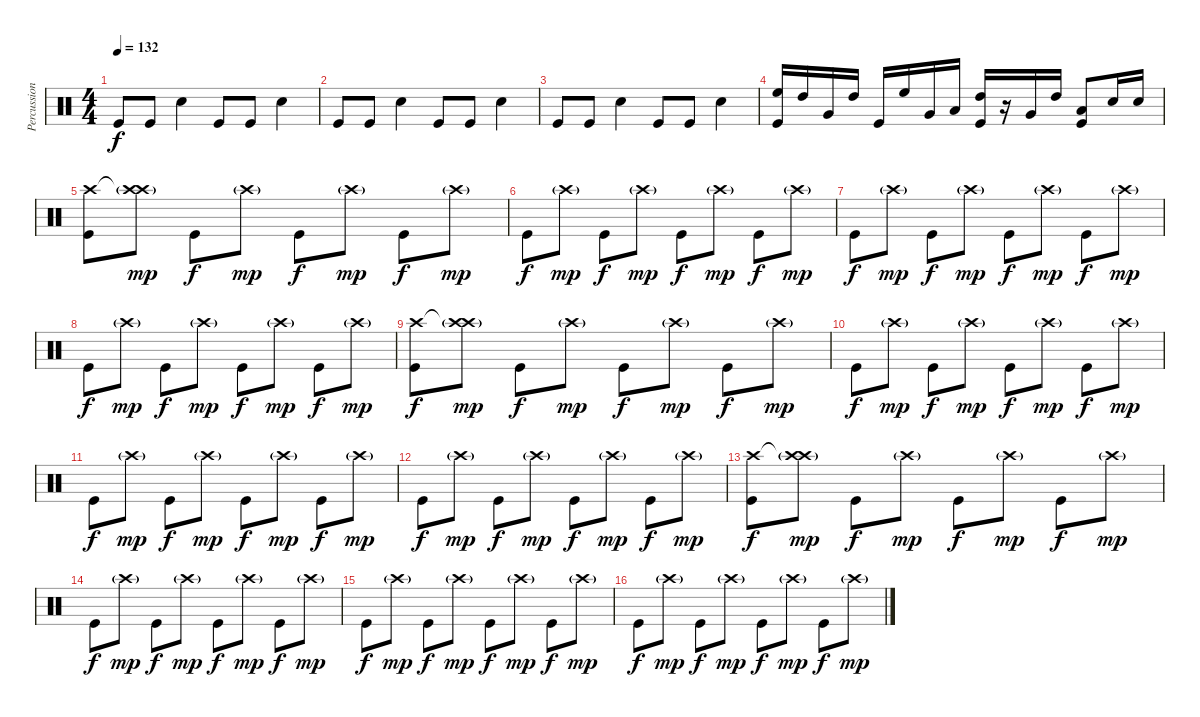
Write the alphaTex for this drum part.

\track ("Percussion" "Percussion") {instrument percussion}
\staff {score}
\articulation defaults
\ts (4 4)
\tempo 132
\clef neutral
\ks c "Kick (hit)".8{dy f} "Kick (hit)".8 "Snare (hit) 2".4 "Kick (hit)".8 "Kick (hit)".8 "Snare (hit) 2".4
|
"Kick (hit)".8 "Kick (hit)".8 "Snare (hit) 2".4 "Kick (hit)".8 "Kick (hit)".8 "Snare (hit) 2".4 |
"Kick (hit)".8 "Kick (hit)".8 "Snare (hit) 2".4 "Kick (hit)".8 "Kick (hit)".8 "Snare (hit) 2".4 |
("High Floor Tom (hit)" "Kick (hit)").16 "High Tom (hit)".16 "Very Low Tom (hit)".16 "High Tom (hit)".16 "Kick (hit)".16 "High Floor Tom (hit)".16 "Very Low Tom (hit)".16 "Low Floor Tom (hit)".16 ("High Tom (hit)" "Kick (hit)").16 r.16 "Very Low Tom (hit)".16 "High Tom (hit)".16 ("Low Floor Tom (hit)" "Kick (hit)").8 "Electric Snare (hit)".16 "Electric Snare (hit)".16 |
("Crash high (hit)" "Kick (hit)").8 ("Crash high (hit)"{t} "Crash high (hit)"{g}).8{dy mp} "Kick (hit)".8{dy f} "Crash high (hit)"{g}.8{dy mp} "Kick (hit)".8{dy f} "Crash high (hit)"{g}.8{dy mp} "Kick (hit)".8{dy f} "Crash high (hit)"{g}.8{dy mp} |
"Kick (hit)".8{dy f} "Crash high (hit)"{g}.8{dy mp} "Kick (hit)".8{dy f} "Crash high (hit)"{g}.8{dy mp} "Kick (hit)".8{dy f} "Crash high (hit)"{g}.8{dy mp} "Kick (hit)".8{dy f} "Crash high (hit)"{g}.8{dy mp} |
"Kick (hit)".8{dy f} "Crash high (hit)"{g}.8{dy mp} "Kick (hit)".8{dy f} "Crash high (hit)"{g}.8{dy mp} "Kick (hit)".8{dy f} "Crash high (hit)"{g}.8{dy mp} "Kick (hit)".8{dy f} "Crash high (hit)"{g}.8{dy mp} |
"Kick (hit)".8{dy f} "Crash high (hit)"{g}.8{dy mp} "Kick (hit)".8{dy f} "Crash high (hit)"{g}.8{dy mp} "Kick (hit)".8{dy f} "Crash high (hit)"{g}.8{dy mp} "Kick (hit)".8{dy f} "Crash high (hit)"{g}.8{dy mp} |
("Crash high (hit)" "Kick (hit)").8{dy f} ("Crash high (hit)"{t} "Crash high (hit)"{g}).8{dy mp} "Kick (hit)".8{dy f} "Crash high (hit)"{g}.8{dy mp} "Kick (hit)".8{dy f} "Crash high (hit)"{g}.8{dy mp} "Kick (hit)".8{dy f} "Crash high (hit)"{g}.8{dy mp} |
"Kick (hit)".8{dy f} "Crash high (hit)"{g}.8{dy mp} "Kick (hit)".8{dy f} "Crash high (hit)"{g}.8{dy mp} "Kick (hit)".8{dy f} "Crash high (hit)"{g}.8{dy mp} "Kick (hit)".8{dy f} "Crash high (hit)"{g}.8{dy mp} |
"Kick (hit)".8{dy f} "Crash high (hit)"{g}.8{dy mp} "Kick (hit)".8{dy f} "Crash high (hit)"{g}.8{dy mp} "Kick (hit)".8{dy f} "Crash high (hit)"{g}.8{dy mp} "Kick (hit)".8{dy f} "Crash high (hit)"{g}.8{dy mp} |
"Kick (hit)".8{dy f} "Crash high (hit)"{g}.8{dy mp} "Kick (hit)".8{dy f} "Crash high (hit)"{g}.8{dy mp} "Kick (hit)".8{dy f} "Crash high (hit)"{g}.8{dy mp} "Kick (hit)".8{dy f} "Crash high (hit)"{g}.8{dy mp} |
("Crash high (hit)" "Kick (hit)").8{dy f} ("Crash high (hit)"{t} "Crash high (hit)"{g}).8{dy mp} "Kick (hit)".8{dy f} "Crash high (hit)"{g}.8{dy mp} "Kick (hit)".8{dy f} "Crash high (hit)"{g}.8{dy mp} "Kick (hit)".8{dy f} "Crash high (hit)"{g}.8{dy mp} |
"Kick (hit)".8{dy f} "Crash high (hit)"{g}.8{dy mp} "Kick (hit)".8{dy f} "Crash high (hit)"{g}.8{dy mp} "Kick (hit)".8{dy f} "Crash high (hit)"{g}.8{dy mp} "Kick (hit)".8{dy f} "Crash high (hit)"{g}.8{dy mp} |
"Kick (hit)".8{dy f} "Crash high (hit)"{g}.8{dy mp} "Kick (hit)".8{dy f} "Crash high (hit)"{g}.8{dy mp} "Kick (hit)".8{dy f} "Crash high (hit)"{g}.8{dy mp} "Kick (hit)".8{dy f} "Crash high (hit)"{g}.8{dy mp} |
"Kick (hit)".8{dy f} "Crash high (hit)"{g}.8{dy mp} "Kick (hit)".8{dy f} "Crash high (hit)"{g}.8{dy mp} "Kick (hit)".8{dy f} "Crash high (hit)"{g}.8{dy mp} "Kick (hit)".8{dy f} "Crash high (hit)"{g}.8{dy mp}
